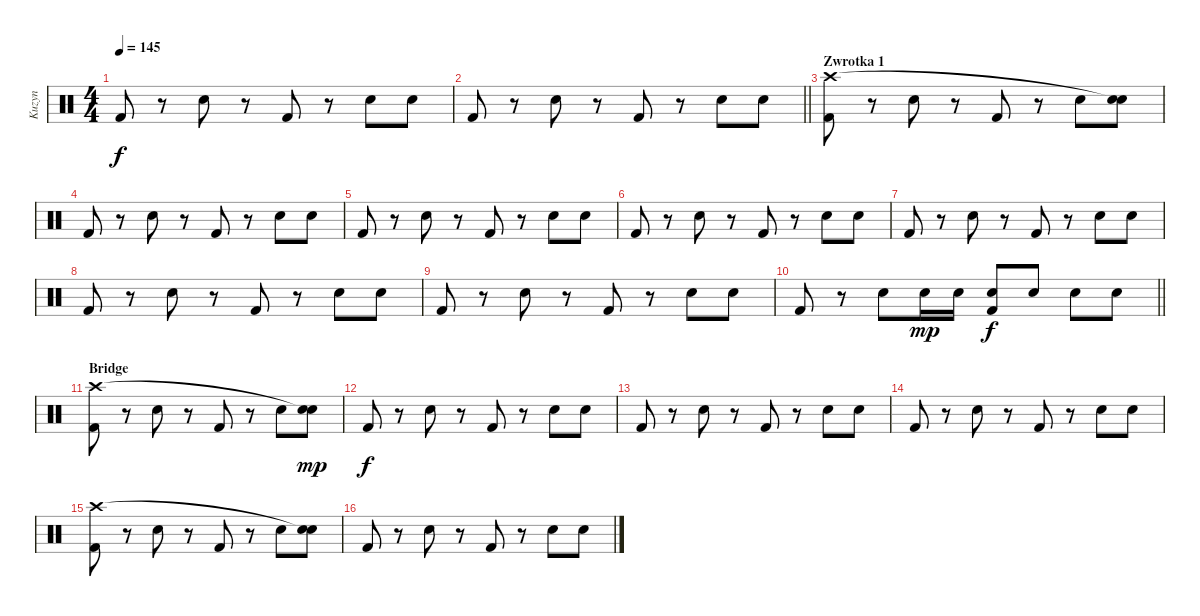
\track ("Kuzyn" "Kuzyn") {instrument percussion}
\staff {score}
\articulation defaults
\ts (4 4)
\tempo 145
\clef neutral
\ks c "Kick (hit) 2".8{dy f}
r.8 "Snare (hit) 2".8 r.8 "Kick (hit) 2".8 r.8 "Snare (hit) 2".8 "Snare (hit) 2".8 |
\barLineRight lightlight "Kick (hit) 2".8
r.8 "Snare (hit) 2".8 r.8 "Kick (hit) 2".8 r.8 "Snare (hit) 2".8 "Snare (hit) 2".8 |
\section ("" "Zwrotka 1")
("Kick (hit) 2" "Crash high (hit)").8 r.8 "Snare (hit) 2".8 r.8 "Kick (hit) 2".8 r.8 "Snare (hit) 2".8 ("Snare (hit) 2" "Snare (hit)"{t}).8 |
"Kick (hit) 2".8 r.8 "Snare (hit) 2".8 r.8 "Kick (hit) 2".8 r.8 "Snare (hit) 2".8 "Snare (hit) 2".8 |
"Kick (hit) 2".8 r.8 "Snare (hit) 2".8 r.8 "Kick (hit) 2".8 r.8 "Snare (hit) 2".8 "Snare (hit) 2".8 |
"Kick (hit) 2".8 r.8 "Snare (hit) 2".8 r.8 "Kick (hit) 2".8 r.8 "Snare (hit) 2".8 "Snare (hit) 2".8 |
"Kick (hit) 2".8 r.8 "Snare (hit) 2".8 r.8 "Kick (hit) 2".8 r.8 "Snare (hit) 2".8 "Snare (hit) 2".8 |
"Kick (hit) 2".8 r.8 "Snare (hit) 2".8 r.8 "Kick (hit) 2".8 r.8 "Snare (hit) 2".8 "Snare (hit) 2".8 |
"Kick (hit) 2".8 r.8 "Snare (hit) 2".8 r.8 "Kick (hit) 2".8 r.8 "Snare (hit) 2".8 "Snare (hit) 2".8 |
\barLineRight lightlight "Kick (hit) 2".8
r.8 "Snare (hit) 2".8 "Snare (hit) 2".16{dy mp} "Snare (hit) 2".16 ("Snare (hit) 2" "Kick (hit) 2").8{dy f} "Snare (hit) 2".8 "Snare (hit) 2".8 "Snare (hit) 2".8 |
\section ("" "Bridge")
("Kick (hit) 2" "Crash high (hit)").8 r.8 "Snare (hit) 2".8 r.8 "Kick (hit) 2".8 r.8 "Snare (hit) 2".8 ("Snare (hit) 2" "Snare (hit)"{t}).8{dy mp} |
"Kick (hit) 2".8{dy f} r.8 "Snare (hit) 2".8 r.8 "Kick (hit) 2".8 r.8 "Snare (hit) 2".8 "Snare (hit) 2".8 |
"Kick (hit) 2".8 r.8 "Snare (hit) 2".8 r.8 "Kick (hit) 2".8 r.8 "Snare (hit) 2".8 "Snare (hit) 2".8 |
"Kick (hit) 2".8 r.8 "Snare (hit) 2".8 r.8 "Kick (hit) 2".8 r.8 "Snare (hit) 2".8 "Snare (hit) 2".8 |
("Kick (hit) 2" "Crash high (hit)").8 r.8 "Snare (hit) 2".8 r.8 "Kick (hit) 2".8 r.8 "Snare (hit) 2".8 ("Snare (hit) 2" "Snare (hit)"{t}).8 |
"Kick (hit) 2".8 r.8 "Snare (hit) 2".8 r.8 "Kick (hit) 2".8 r.8 "Snare (hit) 2".8 "Snare (hit) 2".8
